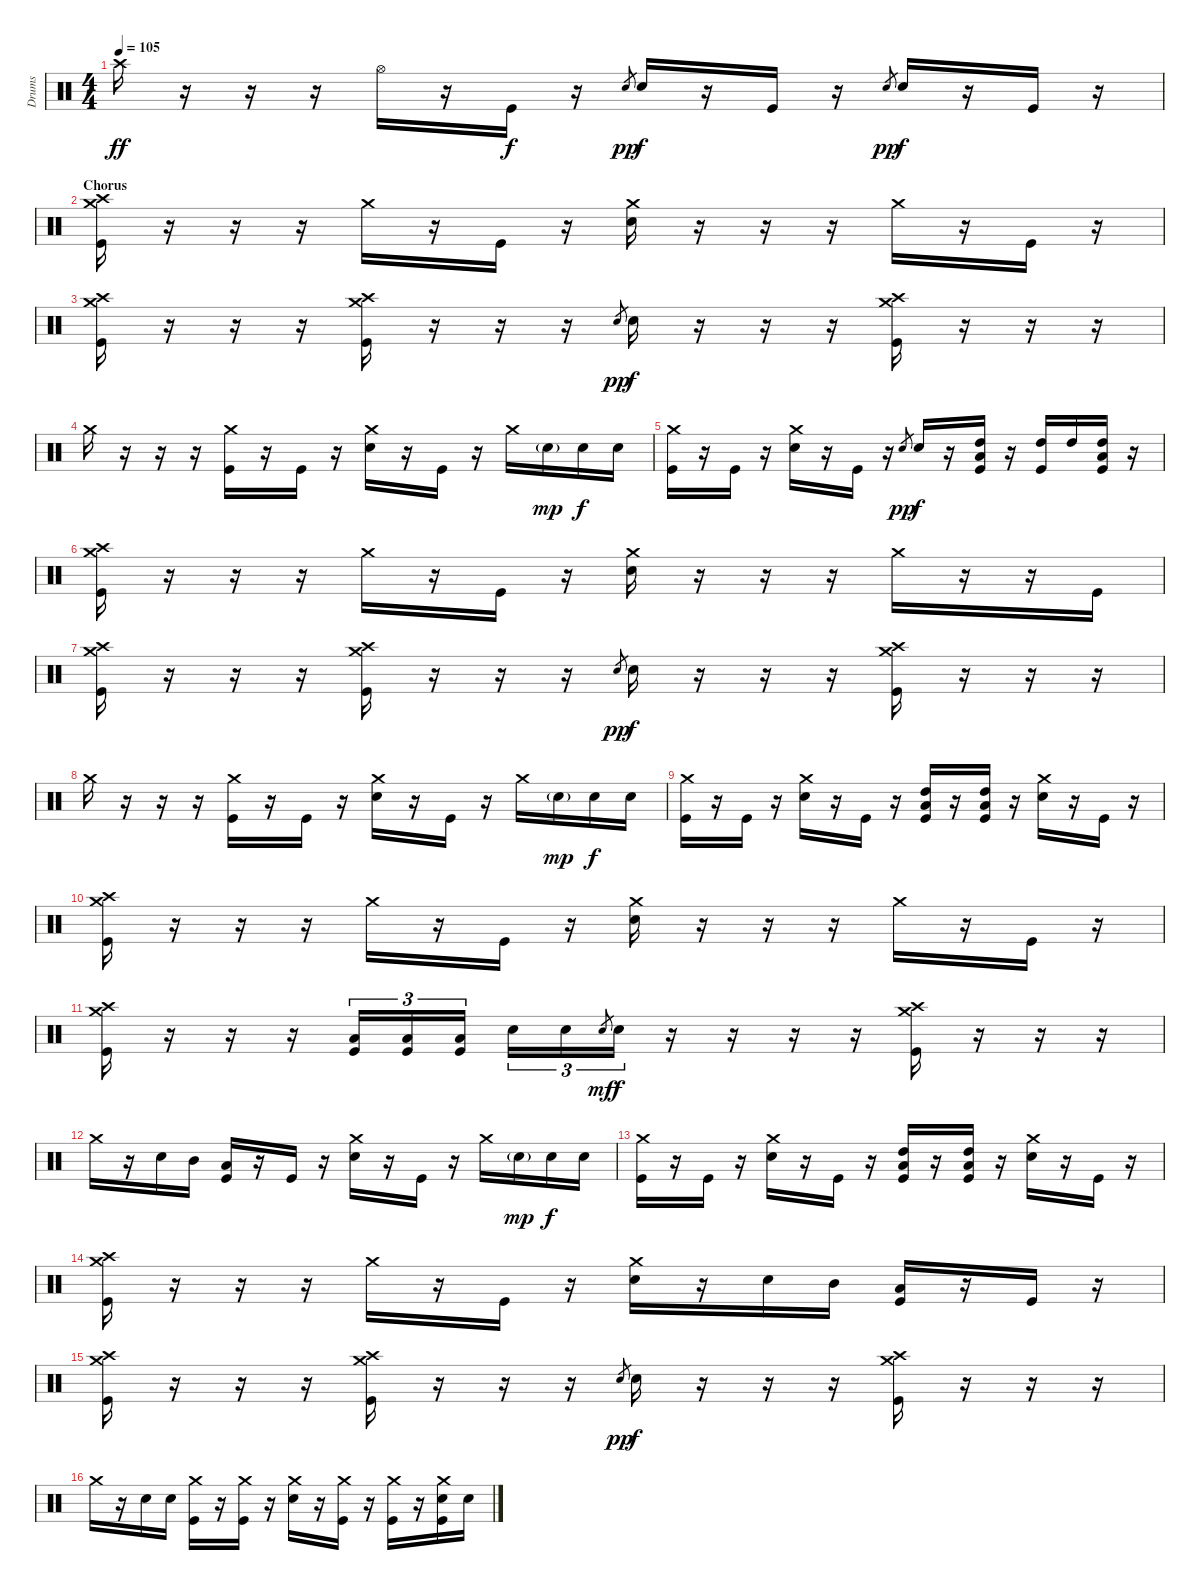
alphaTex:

\track ("Drums" "Drums") {instrument percussion}
\staff {score}
\articulation defaults
\ts (4 4)
\tempo 105
\clef neutral
\ks c "Crash high (hit)".16{dy ff}
r.16 r.16 r.16 "Hi-Hat (open)".16 r.16 "Kick (hit)".16{dy f} r.16 "Snare (hit) 2".8{gr dy pp} "Snare (hit) 2".16{dy f} r.16 "Kick (hit)".16 r.16 "Snare (hit) 2".8{gr dy pp} "Snare (hit) 2".16{dy f} r.16 "Kick (hit)".16 r.16 |
\section ("" "Chorus")
("Crash high (hit)" "Crash medium (hit)" "Kick (hit)").16 r.16 r.16 r.16 "Crash medium (hit)".16 r.16 "Kick (hit)".16 r.16 ("Crash medium (hit)" "Snare (hit) 2").16 r.16 r.16 r.16 "Crash medium (hit)".16 r.16 "Kick (hit)".16 r.16 |
("Crash high (hit)" "Crash medium (hit)" "Kick (hit)").16 r.16 r.16 r.16 ("Crash high (hit)" "Crash medium (hit)" "Kick (hit)").16 r.16 r.16 r.16 "Snare (hit) 2".8{gr dy pp} "Snare (hit) 2".16{dy f} r.16 r.16 r.16 ("Crash high (hit)" "Crash medium (hit)" "Kick (hit)").16 r.16 r.16 r.16 |
"Crash medium (hit)".16 r.16 r.16 r.16 ("Crash medium (hit)" "Kick (hit)").16 r.16 "Kick (hit)".16 r.16 ("Crash medium (hit)" "Snare (hit) 2").16 r.16 "Kick (hit)".16 r.16 "Crash medium (hit)".16 "Snare (hit) 2"{g}.16{dy mp} "Snare (hit) 2".16{dy f} "Snare (hit) 2".16 |
("Crash medium (hit)" "Kick (hit)").16 r.16 "Kick (hit)".16 r.16 ("Crash medium (hit)" "Snare (hit) 2").16 r.16 "Kick (hit)".16 r.16 "Snare (hit) 2".8{gr dy pp} "Snare (hit) 2".16{dy f} r.16 ("High Tom (hit)" "Low Tom (hit)" "Kick (hit)").16 r.16 ("High Tom (hit)" "Kick (hit)").16 "High Tom (hit)".16 ("High Tom (hit)" "Low Tom (hit)" "Kick (hit)").16 r.16 |
("Crash high (hit)" "Crash medium (hit)" "Kick (hit)").16 r.16 r.16 r.16 "Crash medium (hit)".16 r.16 "Kick (hit)".16 r.16 ("Crash medium (hit)" "Snare (hit) 2").16 r.16 r.16 r.16 "Crash medium (hit)".16 r.16 r.16 "Kick (hit)".16 |
("Crash high (hit)" "Crash medium (hit)" "Kick (hit)").16 r.16 r.16 r.16 ("Crash high (hit)" "Crash medium (hit)" "Kick (hit)").16 r.16 r.16 r.16 "Snare (hit) 2".8{gr dy pp} "Snare (hit) 2".16{dy f} r.16 r.16 r.16 ("Crash high (hit)" "Crash medium (hit)" "Kick (hit)").16 r.16 r.16 r.16 |
"Crash medium (hit)".16 r.16 r.16 r.16 ("Crash medium (hit)" "Kick (hit)").16 r.16 "Kick (hit)".16 r.16 ("Crash medium (hit)" "Snare (hit) 2").16 r.16 "Kick (hit)".16 r.16 "Crash medium (hit)".16 "Snare (hit) 2"{g}.16{dy mp} "Snare (hit) 2".16{dy f} "Snare (hit) 2".16 |
("Crash medium (hit)" "Kick (hit)").16 r.16 "Kick (hit)".16 r.16 ("Crash medium (hit)" "Snare (hit) 2").16 r.16 "Kick (hit)".16 r.16 ("High Tom (hit)" "Low Tom (hit)" "Kick (hit)").16 r.16 ("High Tom (hit)" "Low Tom (hit)" "Kick (hit)").16 r.16 ("Crash medium (hit)" "Snare (hit) 2").16 r.16 "Kick (hit)".16 r.16 |
("Crash high (hit)" "Crash medium (hit)" "Kick (hit)").16 r.16 r.16 r.16 "Crash medium (hit)".16 r.16 "Kick (hit)".16 r.16 ("Crash medium (hit)" "Snare (hit) 2").16 r.16 r.16 r.16 "Crash medium (hit)".16 r.16 "Kick (hit)".16 r.16 |
("Crash high (hit)" "Crash medium (hit)" "Kick (hit)").16 r.16 r.16 r.16 ("Low Tom (hit)" "Kick (hit)").16{tu (3 2)} ("Low Tom (hit)" "Kick (hit)").16{tu (3 2)} ("Low Tom (hit)" "Kick (hit)").16{tu (3 2)} "Snare (hit) 2".16{tu (3 2)} "Snare (hit) 2".16{tu (3 2)} "Snare (hit) 2".8{gr dy mf} "Snare (hit) 2".16{tu (3 2) dy f} r.16 r.16 r.16 r.16 ("Crash high (hit)" "Crash medium (hit)" "Kick (hit)").16 r.16 r.16 r.16 |
"Crash medium (hit)".16 r.16 "Snare (hit) 2".16 "Mid Tom (hit)".16 ("Low Tom (hit)" "Kick (hit)").16 r.16 "Kick (hit)".16 r.16 ("Crash medium (hit)" "Snare (hit) 2").16 r.16 "Kick (hit)".16 r.16 "Crash medium (hit)".16 "Snare (hit) 2"{g}.16{dy mp} "Snare (hit) 2".16{dy f} "Snare (hit) 2".16 |
("Crash medium (hit)" "Kick (hit)").16 r.16 "Kick (hit)".16 r.16 ("Crash medium (hit)" "Snare (hit) 2").16 r.16 "Kick (hit)".16 r.16 ("High Tom (hit)" "Low Tom (hit)" "Kick (hit)").16 r.16 ("High Tom (hit)" "Low Tom (hit)" "Kick (hit)").16 r.16 ("Crash medium (hit)" "Snare (hit) 2").16 r.16 "Kick (hit)".16 r.16 |
("Crash high (hit)" "Crash medium (hit)" "Kick (hit)").16 r.16 r.16 r.16 "Crash medium (hit)".16 r.16 "Kick (hit)".16 r.16 ("Crash medium (hit)" "Snare (hit) 2").16 r.16 "Snare (hit) 2".16 "Mid Tom (hit)".16 ("Low Tom (hit)" "Kick (hit)").16 r.16 "Kick (hit)".16 r.16 |
("Crash high (hit)" "Crash medium (hit)" "Kick (hit)").16 r.16 r.16 r.16 ("Crash high (hit)" "Crash medium (hit)" "Kick (hit)").16 r.16 r.16 r.16 "Snare (hit) 2".8{gr dy pp} "Snare (hit) 2".16{dy f} r.16 r.16 r.16 ("Crash high (hit)" "Crash medium (hit)" "Kick (hit)").16 r.16 r.16 r.16 |
"Crash medium (hit)".16 r.16 "Snare (hit) 2".16 "Snare (hit) 2".16 ("Crash medium (hit)" "Kick (hit)").16 r.16 ("Crash medium (hit)" "Kick (hit)").16 r.16 ("Crash medium (hit)" "Snare (hit) 2").16 r.16 ("Crash medium (hit)" "Kick (hit)").16 r.16 ("Crash medium (hit)" "Kick (hit)").16 r.16 ("Crash medium (hit)" "Snare (hit) 2" "Kick (hit)").16 "Snare (hit) 2".16
